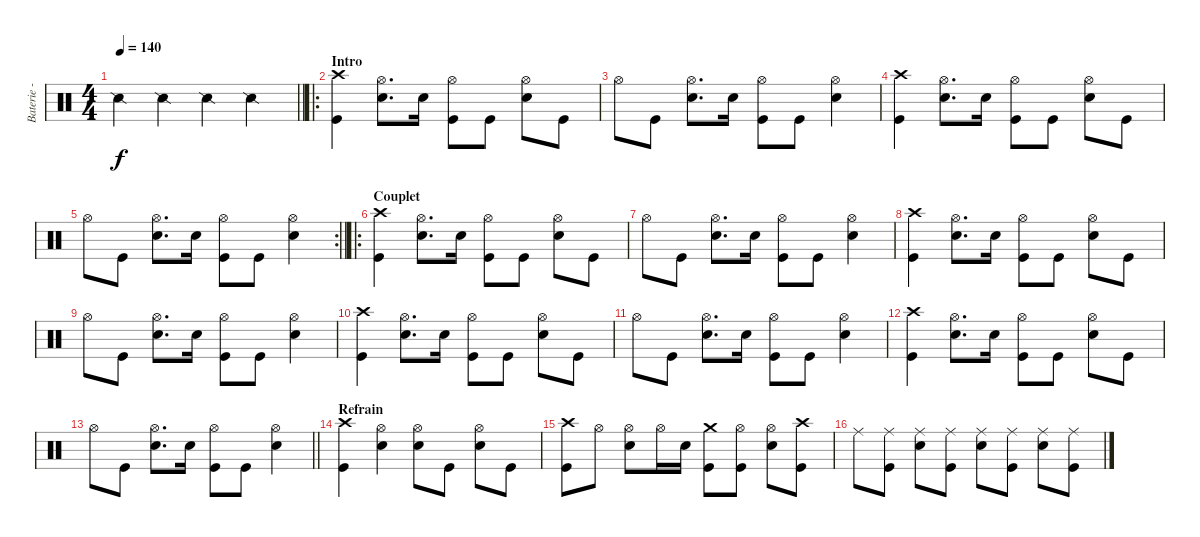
\track ("Baterie - Dave Grohl" "Baterie - ") {instrument percussion}
\staff {score}
\articulation defaults
\ts (4 4)
\tempo 140
\clef neutral
\barLineRight lightlight
\ks c "Snare (side stick) 2".4{dy f} "Snare (side stick) 2".4 "Snare (side stick) 2".4 "Snare (side stick) 2".4
|
\ro
\section ("" "Intro")
("Crash high (hit)" "Kick (hit)").4 ("Hi-Hat (open)" "Electric Snare (hit)").8{d} "Electric Snare (hit)".16 ("Hi-Hat (open)" "Kick (hit)").8 "Kick (hit)".8 ("Hi-Hat (open)" "Electric Snare (hit)").8 "Kick (hit)".8 |
"Hi-Hat (open)".8 "Kick (hit)".8 ("Hi-Hat (open)" "Electric Snare (hit)").8{d} "Electric Snare (hit)".16 ("Hi-Hat (open)" "Kick (hit)").8 "Kick (hit)".8 ("Hi-Hat (open)" "Electric Snare (hit)").4 |
("Crash high (hit)" "Kick (hit)").4 ("Hi-Hat (open)" "Electric Snare (hit)").8{d} "Electric Snare (hit)".16 ("Hi-Hat (open)" "Kick (hit)").8 "Kick (hit)".8 ("Hi-Hat (open)" "Electric Snare (hit)").8 "Kick (hit)".8 |
\rc 2
\barLineRight lightlight "Hi-Hat (open)".8 "Kick (hit)".8
("Hi-Hat (open)" "Electric Snare (hit)").8{d} "Electric Snare (hit)".16 ("Hi-Hat (open)" "Kick (hit)").8 "Kick (hit)".8 ("Hi-Hat (open)" "Electric Snare (hit)").4 |
\ro
\section ("" "Couplet")
("Crash high (hit)" "Kick (hit)").4 ("Hi-Hat (open)" "Electric Snare (hit)").8{d} "Electric Snare (hit)".16 ("Hi-Hat (open)" "Kick (hit)").8 "Kick (hit)".8 ("Hi-Hat (open)" "Electric Snare (hit)").8 "Kick (hit)".8 |
"Hi-Hat (open)".8 "Kick (hit)".8 ("Hi-Hat (open)" "Electric Snare (hit)").8{d} "Electric Snare (hit)".16 ("Hi-Hat (open)" "Kick (hit)").8 "Kick (hit)".8 ("Hi-Hat (open)" "Electric Snare (hit)").4 |
("Crash high (hit)" "Kick (hit)").4 ("Hi-Hat (open)" "Electric Snare (hit)").8{d} "Electric Snare (hit)".16 ("Hi-Hat (open)" "Kick (hit)").8 "Kick (hit)".8 ("Hi-Hat (open)" "Electric Snare (hit)").8 "Kick (hit)".8 |
"Hi-Hat (open)".8 "Kick (hit)".8 ("Hi-Hat (open)" "Electric Snare (hit)").8{d} "Electric Snare (hit)".16 ("Hi-Hat (open)" "Kick (hit)").8 "Kick (hit)".8 ("Hi-Hat (open)" "Electric Snare (hit)").4 |
("Crash high (hit)" "Kick (hit)").4 ("Hi-Hat (open)" "Electric Snare (hit)").8{d} "Electric Snare (hit)".16 ("Hi-Hat (open)" "Kick (hit)").8 "Kick (hit)".8 ("Hi-Hat (open)" "Electric Snare (hit)").8 "Kick (hit)".8 |
"Hi-Hat (open)".8 "Kick (hit)".8 ("Hi-Hat (open)" "Electric Snare (hit)").8{d} "Electric Snare (hit)".16 ("Hi-Hat (open)" "Kick (hit)").8 "Kick (hit)".8 ("Hi-Hat (open)" "Electric Snare (hit)").4 |
("Crash high (hit)" "Kick (hit)").4 ("Hi-Hat (open)" "Electric Snare (hit)").8{d} "Electric Snare (hit)".16 ("Hi-Hat (open)" "Kick (hit)").8 "Kick (hit)".8 ("Hi-Hat (open)" "Electric Snare (hit)").8 "Kick (hit)".8 |
\barLineRight lightlight "Hi-Hat (open)".8 "Kick (hit)".8
("Hi-Hat (open)" "Electric Snare (hit)").8{d} "Electric Snare (hit)".16 ("Hi-Hat (open)" "Kick (hit)").8 "Kick (hit)".8 ("Hi-Hat (open)" "Electric Snare (hit)").4 |
\section ("" "Refrain")
("Crash high (hit)" "Kick (hit)").4 ("Hi-Hat (open)" "Electric Snare (hit)").4 ("Hi-Hat (open)" "Electric Snare (hit)").8 "Kick (hit)".8 ("Hi-Hat (open)" "Electric Snare (hit)").8 "Kick (hit)".8 |
("Crash high (hit)" "Kick (hit)").8 "Hi-Hat (open)".8 ("Hi-Hat (open)" "Electric Snare (hit)").8 "Hi-Hat (open)".16 "Electric Snare (hit)".16 ("Crash medium (hit)" "Kick (hit)").8 ("Hi-Hat (open)" "Kick (hit)").8 ("Hi-Hat (open)" "Electric Snare (hit)").8 ("Crash high (hit)" "Kick (hit)").8 |
"Ride (middle)".8 ("Ride (middle)" "Kick (hit)").8 ("Ride (middle)" "Electric Snare (hit)").8 ("Ride (middle)" "Kick (hit)").8 ("Ride (middle)" "Electric Snare (hit)").8 ("Ride (middle)" "Kick (hit)").8 ("Ride (middle)" "Electric Snare (hit)").8 ("Ride (middle)" "Kick (hit)").8
